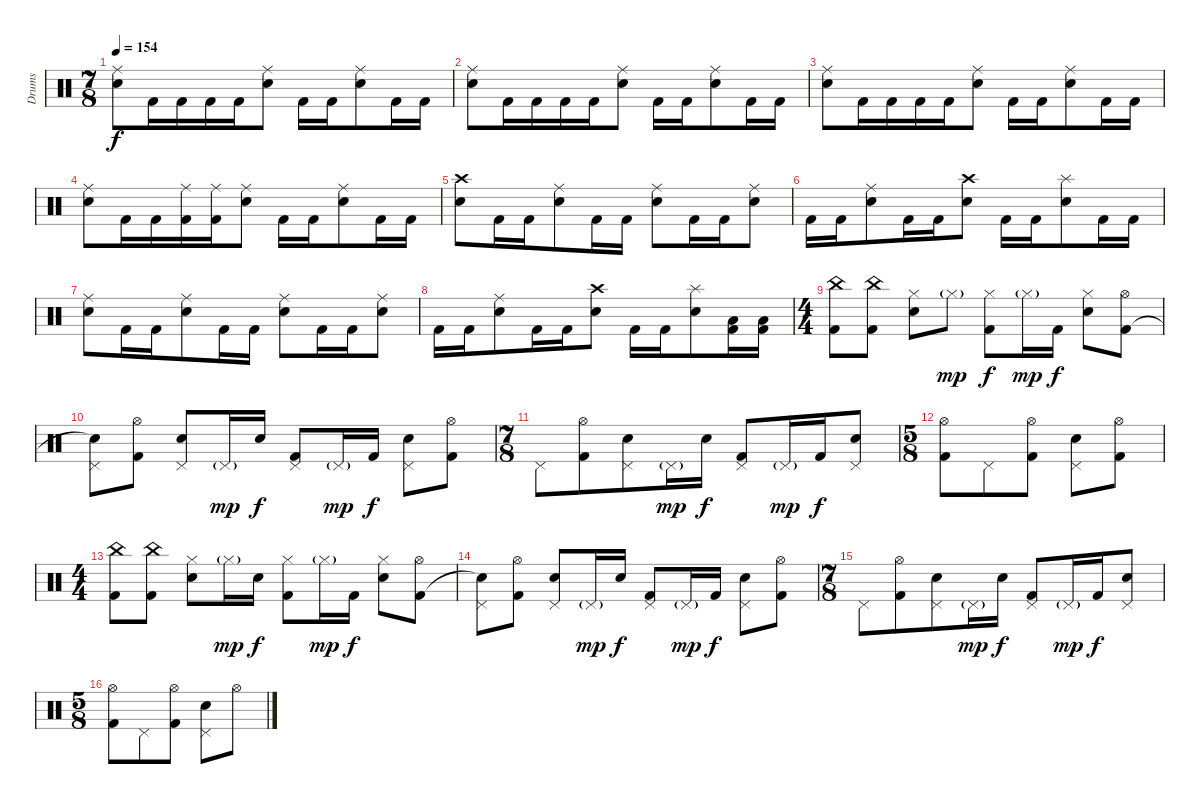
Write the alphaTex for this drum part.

\track ("Drums" "Drums") {instrument percussion}
\staff {score}
\articulation defaults
\ts (7 8)
\tempo 154
\clef neutral
\ks c
("Ride (middle)" "Snare (hit) 2").8{dy f} "Kick (hit) 2".16 "Kick (hit) 2".16 "Kick (hit) 2".16 "Kick (hit) 2".16 ("Ride (middle)" "Snare (hit) 2").8 "Kick (hit) 2".16 "Kick (hit) 2".16 ("Ride (middle)" "Snare (hit) 2").8 "Kick (hit) 2".16 "Kick (hit) 2".16 |
("Ride (middle)" "Snare (hit) 2").8 "Kick (hit) 2".16 "Kick (hit) 2".16 "Kick (hit) 2".16 "Kick (hit) 2".16 ("Ride (middle)" "Snare (hit) 2").8 "Kick (hit) 2".16 "Kick (hit) 2".16 ("Ride (middle)" "Snare (hit) 2").8 "Kick (hit) 2".16 "Kick (hit) 2".16 |
("Ride (middle)" "Snare (hit) 2").8 "Kick (hit) 2".16 "Kick (hit) 2".16 "Kick (hit) 2".16 "Kick (hit) 2".16 ("Ride (middle)" "Snare (hit) 2").8 "Kick (hit) 2".16 "Kick (hit) 2".16 ("Ride (middle)" "Snare (hit) 2").8 "Kick (hit) 2".16 "Kick (hit) 2".16 |
("Ride (middle)" "Snare (hit) 2").8 "Kick (hit) 2".16 "Kick (hit) 2".16 ("Ride (middle)" "Kick (hit) 2").16 ("Ride (middle)" "Kick (hit) 2").16 ("Ride (middle)" "Snare (hit) 2").8 "Kick (hit) 2".16 "Kick (hit) 2".16 ("Ride (middle)" "Snare (hit) 2").8 "Kick (hit) 2".16 "Kick (hit) 2".16 |
("Crash high (hit)" "Snare (hit) 2").8 "Kick (hit) 2".16 "Kick (hit) 2".16 ("Ride (middle)" "Snare (hit) 2").8 "Kick (hit) 2".16 "Kick (hit) 2".16 ("Ride (middle)" "Snare (hit) 2").8 "Kick (hit) 2".16 "Kick (hit) 2".16 ("Ride (middle)" "Snare (hit) 2").8 |
"Kick (hit) 2".16 "Kick (hit) 2".16 ("Ride (middle)" "Snare (hit) 2").8 "Kick (hit) 2".16 "Kick (hit) 2".16 ("Crash high (hit)" "Snare (hit) 2").8 "Kick (hit) 2".16 "Kick (hit) 2".16 ("Splash (hit)" "Snare (hit) 2").8 "Kick (hit) 2".16 "Kick (hit) 2".16 |
("Ride (middle)" "Snare (hit) 2").8 "Kick (hit) 2".16 "Kick (hit) 2".16 ("Ride (middle)" "Snare (hit) 2").8 "Kick (hit) 2".16 "Kick (hit) 2".16 ("Ride (middle)" "Snare (hit) 2").8 "Kick (hit) 2".16 "Kick (hit) 2".16 ("Ride (middle)" "Snare (hit) 2").8 |
"Kick (hit) 2".16 "Kick (hit) 2".16 ("Ride (middle)" "Snare (hit) 2").8 "Kick (hit) 2".16 "Kick (hit) 2".16 ("Crash high (hit)" "Snare (hit) 2").8 "Kick (hit) 2".16 "Kick (hit) 2".16 ("Splash (hit)" "Snare (hit) 2").8 ("Low Tom (hit)" "Kick (hit) 2").16 ("Low Tom (hit)" "Kick (hit) 2").16 |
\ts (4 4)
("China (hit)" "Kick (hit) 2").8 ("China (hit)" "Kick (hit) 2").8 ("Hi-Hat (closed)" "Snare (hit) 2").8 "Hi-Hat (closed)"{g}.8{dy mp} ("Hi-Hat (closed)" "Kick (hit) 2").8{dy f} "Hi-Hat (closed)"{g}.16{dy mp} "Kick (hit) 2".16{dy f} ("Hi-Hat (closed)" "Snare (hit) 2").8 ("Hi-Hat (open)" "Kick (hit) 2").8 |
("Pedal Hi-Hat (hit)" "Snare (hit)"{t}).8 ("Hi-Hat (open)" "Kick (hit) 2").8 ("Pedal Hi-Hat (hit)" "Snare (hit) 2").8 "Pedal Hi-Hat (hit)"{g}.16{dy mp} "Snare (hit) 2".16{dy f} ("Pedal Hi-Hat (hit)" "Kick (hit) 2").8 "Pedal Hi-Hat (hit)"{g}.16{dy mp} "Kick (hit) 2".16{dy f} ("Pedal Hi-Hat (hit)" "Snare (hit) 2").8 ("Hi-Hat (open)" "Kick (hit) 2").8 |
\ts (7 8)
"Pedal Hi-Hat (hit)".8 ("Hi-Hat (open)" "Kick (hit) 2").8 ("Pedal Hi-Hat (hit)" "Snare (hit) 2").8 "Pedal Hi-Hat (hit)"{g}.16{dy mp} "Snare (hit) 2".16{dy f} ("Pedal Hi-Hat (hit)" "Kick (hit) 2").8 "Pedal Hi-Hat (hit)"{g}.16{dy mp} "Kick (hit) 2".16{dy f} ("Pedal Hi-Hat (hit)" "Snare (hit) 2").8 |
\ts (5 8)
("Hi-Hat (open)" "Kick (hit) 2").8 "Pedal Hi-Hat (hit)".8 ("Hi-Hat (open)" "Kick (hit) 2").8 ("Pedal Hi-Hat (hit)" "Snare (hit) 2").8 ("Hi-Hat (open)" "Kick (hit) 2").8 |
\ts (4 4)
("China (hit)" "Kick (hit) 2").8 ("China (hit)" "Kick (hit) 2").8 ("Hi-Hat (closed)" "Snare (hit) 2").8 "Hi-Hat (closed)"{g}.16{dy mp} "Snare (hit) 2".16{dy f} ("Hi-Hat (closed)" "Kick (hit) 2").8 "Hi-Hat (closed)"{g}.16{dy mp} "Kick (hit) 2".16{dy f} ("Hi-Hat (closed)" "Snare (hit) 2").8 ("Hi-Hat (open)" "Kick (hit) 2").8 |
("Pedal Hi-Hat (hit)" "Snare (hit)"{t}).8 ("Hi-Hat (open)" "Kick (hit) 2").8 ("Pedal Hi-Hat (hit)" "Snare (hit) 2").8 "Pedal Hi-Hat (hit)"{g}.16{dy mp} "Snare (hit) 2".16{dy f} ("Pedal Hi-Hat (hit)" "Kick (hit) 2").8 "Pedal Hi-Hat (hit)"{g}.16{dy mp} "Kick (hit) 2".16{dy f} ("Pedal Hi-Hat (hit)" "Snare (hit) 2").8 ("Hi-Hat (open)" "Kick (hit) 2").8 |
\ts (7 8)
"Pedal Hi-Hat (hit)".8 ("Hi-Hat (open)" "Kick (hit) 2").8 ("Pedal Hi-Hat (hit)" "Snare (hit) 2").8 "Pedal Hi-Hat (hit)"{g}.16{dy mp} "Snare (hit) 2".16{dy f} ("Pedal Hi-Hat (hit)" "Kick (hit) 2").8 "Pedal Hi-Hat (hit)"{g}.16{dy mp} "Kick (hit) 2".16{dy f} ("Pedal Hi-Hat (hit)" "Snare (hit) 2").8 |
\ts (5 8)
("Hi-Hat (open)" "Kick (hit) 2").8 "Pedal Hi-Hat (hit)".8 ("Hi-Hat (open)" "Kick (hit) 2").8 ("Pedal Hi-Hat (hit)" "Snare (hit) 2").8 "Hi-Hat (open)".8
